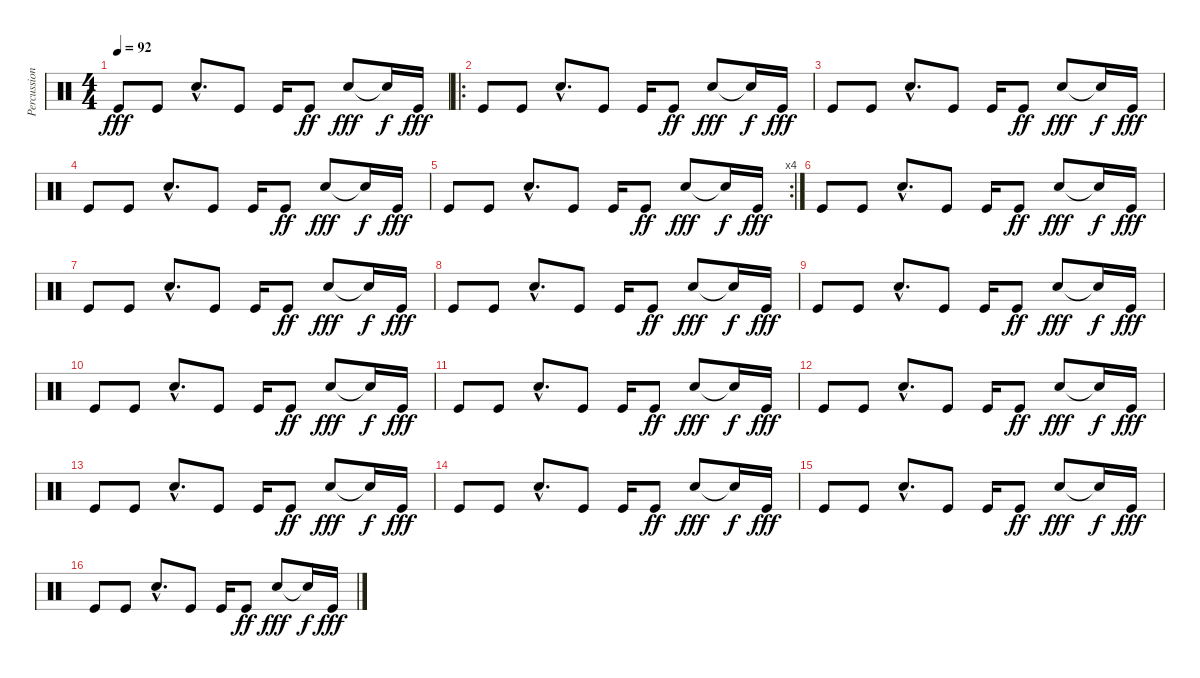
\track ("Percussion" "Percussion") {instrument percussion}
\staff {score}
\articulation defaults
\ts (4 4)
\tempo 92
\clef neutral
\ks c "Kick (hit)".8{dy fff} "Kick (hit)".8 "Electric Snare (hit)"{hac}.8{d} "Kick (hit)".8 "Kick (hit)".16 "Kick (hit)".8{dy ff} "Electric Snare (hit)".8{dy fff} "Snare (hit)"{t}.16{dy f} "Kick (hit)".16{dy fff}
|
\ro "Kick (hit)".8 "Kick (hit)".8 "Electric Snare (hit)"{hac}.8{d} "Kick (hit)".8 "Kick (hit)".16 "Kick (hit)".8{dy ff} "Electric Snare (hit)".8{dy fff} "Snare (hit)"{t}.16{dy f} "Kick (hit)".16{dy fff}
|
"Kick (hit)".8 "Kick (hit)".8 "Electric Snare (hit)"{hac}.8{d} "Kick (hit)".8 "Kick (hit)".16 "Kick (hit)".8{dy ff} "Electric Snare (hit)".8{dy fff} "Snare (hit)"{t}.16{dy f} "Kick (hit)".16{dy fff} |
"Kick (hit)".8 "Kick (hit)".8 "Electric Snare (hit)"{hac}.8{d} "Kick (hit)".8 "Kick (hit)".16 "Kick (hit)".8{dy ff} "Electric Snare (hit)".8{dy fff} "Snare (hit)"{t}.16{dy f} "Kick (hit)".16{dy fff} |
\rc 4 "Kick (hit)".8 "Kick (hit)".8 "Electric Snare (hit)"{hac}.8{d} "Kick (hit)".8 "Kick (hit)".16 "Kick (hit)".8{dy ff} "Electric Snare (hit)".8{dy fff} "Snare (hit)"{t}.16{dy f} "Kick (hit)".16{dy fff}
|
"Kick (hit)".8 "Kick (hit)".8 "Electric Snare (hit)"{hac}.8{d} "Kick (hit)".8 "Kick (hit)".16 "Kick (hit)".8{dy ff} "Electric Snare (hit)".8{dy fff} "Snare (hit)"{t}.16{dy f} "Kick (hit)".16{dy fff} |
"Kick (hit)".8 "Kick (hit)".8 "Electric Snare (hit)"{hac}.8{d} "Kick (hit)".8 "Kick (hit)".16 "Kick (hit)".8{dy ff} "Electric Snare (hit)".8{dy fff} "Snare (hit)"{t}.16{dy f} "Kick (hit)".16{dy fff} |
"Kick (hit)".8 "Kick (hit)".8 "Electric Snare (hit)"{hac}.8{d} "Kick (hit)".8 "Kick (hit)".16 "Kick (hit)".8{dy ff} "Electric Snare (hit)".8{dy fff} "Snare (hit)"{t}.16{dy f} "Kick (hit)".16{dy fff} |
"Kick (hit)".8 "Kick (hit)".8 "Electric Snare (hit)"{hac}.8{d} "Kick (hit)".8 "Kick (hit)".16 "Kick (hit)".8{dy ff} "Electric Snare (hit)".8{dy fff} "Snare (hit)"{t}.16{dy f} "Kick (hit)".16{dy fff} |
"Kick (hit)".8 "Kick (hit)".8 "Electric Snare (hit)"{hac}.8{d} "Kick (hit)".8 "Kick (hit)".16 "Kick (hit)".8{dy ff} "Electric Snare (hit)".8{dy fff} "Snare (hit)"{t}.16{dy f} "Kick (hit)".16{dy fff} |
"Kick (hit)".8 "Kick (hit)".8 "Electric Snare (hit)"{hac}.8{d} "Kick (hit)".8 "Kick (hit)".16 "Kick (hit)".8{dy ff} "Electric Snare (hit)".8{dy fff} "Snare (hit)"{t}.16{dy f} "Kick (hit)".16{dy fff} |
"Kick (hit)".8 "Kick (hit)".8 "Electric Snare (hit)"{hac}.8{d} "Kick (hit)".8 "Kick (hit)".16 "Kick (hit)".8{dy ff} "Electric Snare (hit)".8{dy fff} "Snare (hit)"{t}.16{dy f} "Kick (hit)".16{dy fff} |
"Kick (hit)".8 "Kick (hit)".8 "Electric Snare (hit)"{hac}.8{d} "Kick (hit)".8 "Kick (hit)".16 "Kick (hit)".8{dy ff} "Electric Snare (hit)".8{dy fff} "Snare (hit)"{t}.16{dy f} "Kick (hit)".16{dy fff} |
"Kick (hit)".8 "Kick (hit)".8 "Electric Snare (hit)"{hac}.8{d} "Kick (hit)".8 "Kick (hit)".16 "Kick (hit)".8{dy ff} "Electric Snare (hit)".8{dy fff} "Snare (hit)"{t}.16{dy f} "Kick (hit)".16{dy fff} |
"Kick (hit)".8 "Kick (hit)".8 "Electric Snare (hit)"{hac}.8{d} "Kick (hit)".8 "Kick (hit)".16 "Kick (hit)".8{dy ff} "Electric Snare (hit)".8{dy fff} "Snare (hit)"{t}.16{dy f} "Kick (hit)".16{dy fff} |
"Kick (hit)".8 "Kick (hit)".8 "Electric Snare (hit)"{hac}.8{d} "Kick (hit)".8 "Kick (hit)".16 "Kick (hit)".8{dy ff} "Electric Snare (hit)".8{dy fff} "Snare (hit)"{t}.16{dy f} "Kick (hit)".16{dy fff}
